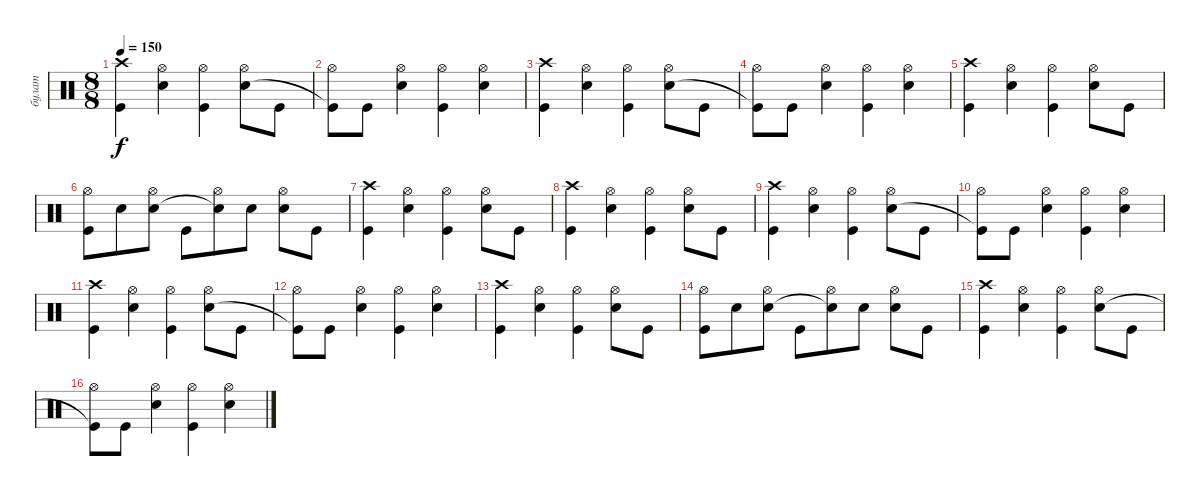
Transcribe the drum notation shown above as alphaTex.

\track ("булат" "булат") {instrument percussion}
\staff {score}
\articulation defaults
\ts (8 8)
\tempo 150
\clef neutral
\ks c
("Crash high (hit)" "Kick (hit)").4{dy f} ("Hi-Hat (open)" "Snare (hit) 2").4 ("Hi-Hat (open)" "Kick (hit)").4 ("Hi-Hat (open)" "Snare (hit) 2").8 "Kick (hit)".8 |
("Hi-Hat (open)" "Kick (hit)"{t}).8 "Kick (hit)".8 ("Hi-Hat (open)" "Snare (hit) 2").4 ("Hi-Hat (open)" "Kick (hit)").4 ("Hi-Hat (open)" "Snare (hit) 2").4 |
("Crash high (hit)" "Kick (hit)").4 ("Hi-Hat (open)" "Snare (hit) 2").4 ("Hi-Hat (open)" "Kick (hit)").4 ("Hi-Hat (open)" "Snare (hit) 2").8 "Kick (hit)".8 |
("Hi-Hat (open)" "Kick (hit)"{t}).8 "Kick (hit)".8 ("Hi-Hat (open)" "Snare (hit) 2").4 ("Hi-Hat (open)" "Kick (hit)").4 ("Hi-Hat (open)" "Snare (hit) 2").4 |
("Crash high (hit)" "Kick (hit)").4 ("Hi-Hat (open)" "Snare (hit) 2").4 ("Hi-Hat (open)" "Kick (hit)").4 ("Hi-Hat (open)" "Snare (hit) 2").8 "Kick (hit)".8 |
("Hi-Hat (open)" "Kick (hit)").8 "Snare (hit) 2".8 ("Hi-Hat (open)" "Snare (hit) 2").8 "Kick (hit)".8 ("Hi-Hat (open)" "Snare (hit)"{t}).8 "Snare (hit) 2".8 ("Hi-Hat (open)" "Snare (hit) 2").8 "Kick (hit)".8 |
("Crash high (hit)" "Kick (hit)").4 ("Hi-Hat (open)" "Snare (hit) 2").4 ("Hi-Hat (open)" "Kick (hit)").4 ("Hi-Hat (open)" "Snare (hit) 2").8 "Kick (hit)".8 |
("Crash high (hit)" "Kick (hit)").4 ("Hi-Hat (open)" "Snare (hit) 2").4 ("Hi-Hat (open)" "Kick (hit)").4 ("Hi-Hat (open)" "Snare (hit) 2").8 "Kick (hit)".8 |
("Crash high (hit)" "Kick (hit)").4 ("Hi-Hat (open)" "Snare (hit) 2").4 ("Hi-Hat (open)" "Kick (hit)").4 ("Hi-Hat (open)" "Snare (hit) 2").8 "Kick (hit)".8 |
("Hi-Hat (open)" "Kick (hit)"{t}).8 "Kick (hit)".8 ("Hi-Hat (open)" "Snare (hit) 2").4 ("Hi-Hat (open)" "Kick (hit)").4 ("Hi-Hat (open)" "Snare (hit) 2").4 |
("Crash high (hit)" "Kick (hit)").4 ("Hi-Hat (open)" "Snare (hit) 2").4 ("Hi-Hat (open)" "Kick (hit)").4 ("Hi-Hat (open)" "Snare (hit) 2").8 "Kick (hit)".8 |
("Hi-Hat (open)" "Kick (hit)"{t}).8 "Kick (hit)".8 ("Hi-Hat (open)" "Snare (hit) 2").4 ("Hi-Hat (open)" "Kick (hit)").4 ("Hi-Hat (open)" "Snare (hit) 2").4 |
("Crash high (hit)" "Kick (hit)").4 ("Hi-Hat (open)" "Snare (hit) 2").4 ("Hi-Hat (open)" "Kick (hit)").4 ("Hi-Hat (open)" "Snare (hit) 2").8 "Kick (hit)".8 |
("Hi-Hat (open)" "Kick (hit)").8 "Snare (hit) 2".8 ("Hi-Hat (open)" "Snare (hit) 2").8 "Kick (hit)".8 ("Hi-Hat (open)" "Snare (hit)"{t}).8 "Snare (hit) 2".8 ("Hi-Hat (open)" "Snare (hit) 2").8 "Kick (hit)".8 |
("Crash high (hit)" "Kick (hit)").4 ("Hi-Hat (open)" "Snare (hit) 2").4 ("Hi-Hat (open)" "Kick (hit)").4 ("Hi-Hat (open)" "Snare (hit) 2").8 "Kick (hit)".8 |
("Hi-Hat (open)" "Kick (hit)"{t}).8 "Kick (hit)".8 ("Hi-Hat (open)" "Snare (hit) 2").4 ("Hi-Hat (open)" "Kick (hit)").4 ("Hi-Hat (open)" "Snare (hit) 2").4
